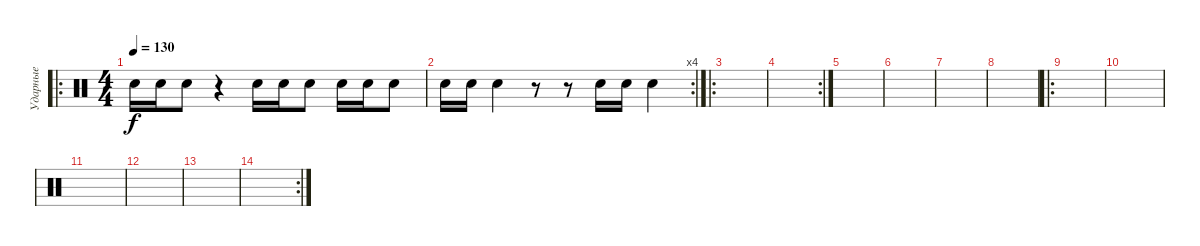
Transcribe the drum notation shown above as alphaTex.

\track ("Ударные" "Ударные") {instrument percussion}
\staff {score}
\articulation defaults
\ro
\ts (4 4)
\tempo 130
\clef neutral
\ks c "Electric Snare (hit)".16{dy f} "Electric Snare (hit)".16 "Electric Snare (hit)".8
r.4 "Electric Snare (hit)".16 "Electric Snare (hit)".16 "Electric Snare (hit)".8 "Electric Snare (hit)".16 "Electric Snare (hit)".16 "Electric Snare (hit)".8 |
\rc 4 "Electric Snare (hit)".16 "Electric Snare (hit)".16 "Electric Snare (hit)".4
r.8 r.8 "Electric Snare (hit)".16 "Electric Snare (hit)".16 "Electric Snare (hit)".4 |
\ro
|
\rc 2
|
|
|
|
|
\ro
|
|
|
|
|
\rc 2
